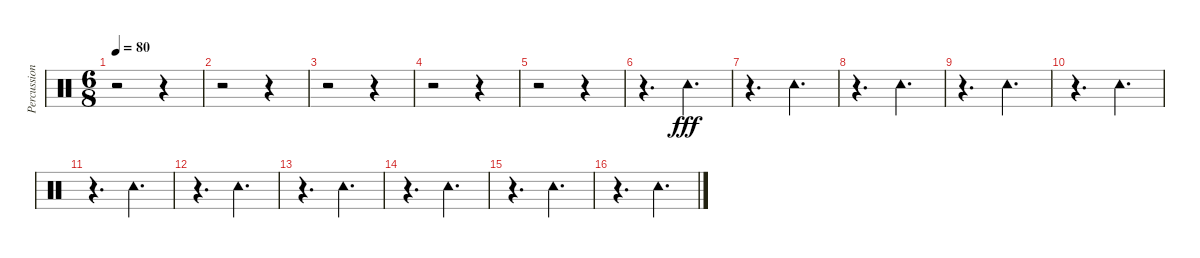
\track ("Percussion" "Percussion") {instrument percussion}
\staff {score}
\articulation defaults
\ts (6 8)
\tempo 80
\clef neutral
\ks c
r.2{dy fff} r.4 |
r.2 r.4 |
r.2 r.4 |
r.2 r.4 |
r.2 r.4 |
r.4{d} "Tambourine (hit)".4{d} |
r.4{d} "Tambourine (hit)".4{d} |
r.4{d} "Tambourine (hit)".4{d} |
r.4{d} "Tambourine (hit)".4{d} |
r.4{d} "Tambourine (hit)".4{d} |
r.4{d} "Tambourine (hit)".4{d} |
r.4{d} "Tambourine (hit)".4{d} |
r.4{d} "Tambourine (hit)".4{d} |
r.4{d} "Tambourine (hit)".4{d} |
r.4{d} "Tambourine (hit)".4{d} |
r.4{d} "Tambourine (hit)".4{d}
